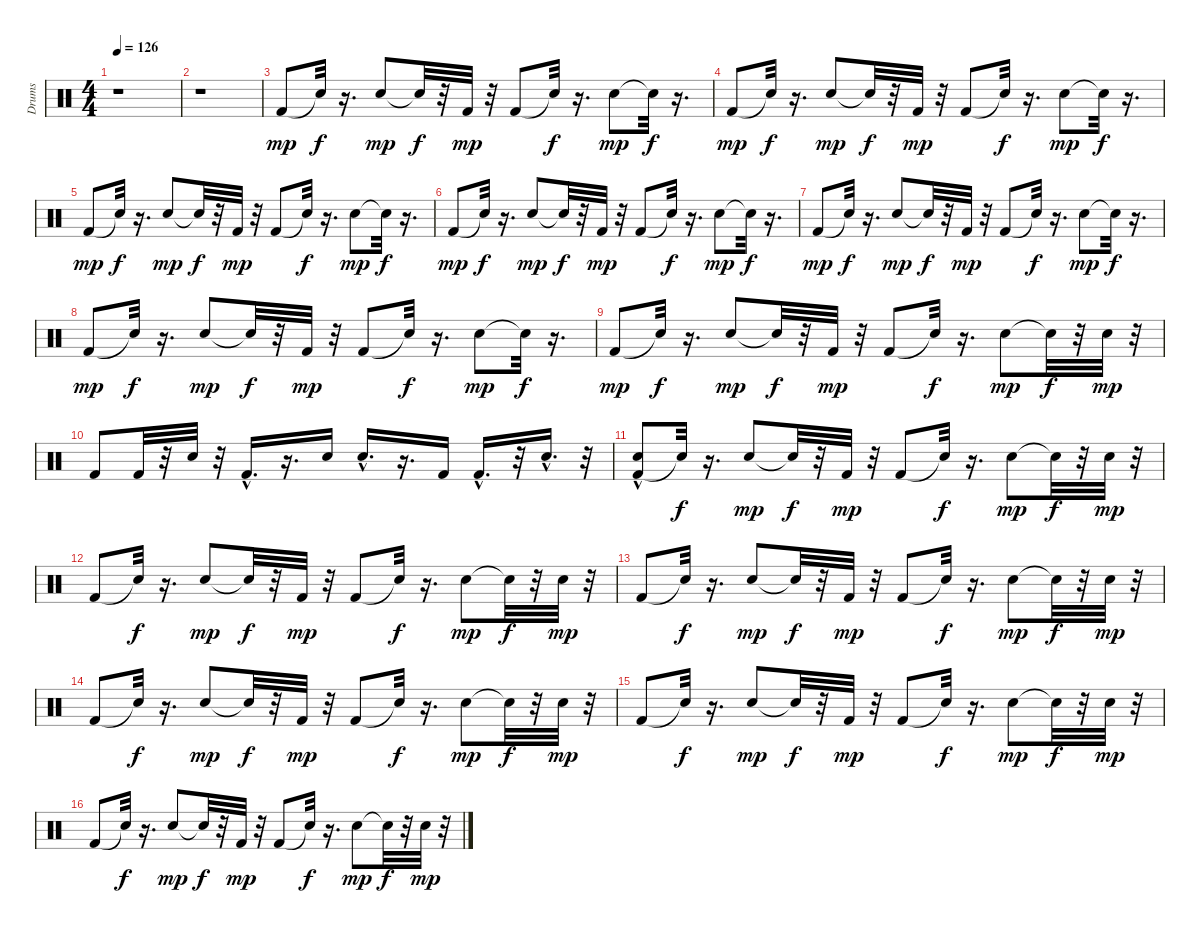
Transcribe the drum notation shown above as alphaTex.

\track ("Drums" "Drums") {instrument percussion}
\staff {score}
\articulation defaults
\ts (4 4)
\tempo 126
\clef neutral
\ks c
r.1{dy mp} |
r.1 |
"Kick (hit) 2".8 "Snare (hit)"{t}.32{dy f} r.16{d} "Electric Snare (hit)".8{dy mp} "Snare (hit)"{t}.32{dy f} r.32 "Kick (hit) 2".32{dy mp} r.32 "Kick (hit) 2".8 "Snare (hit)"{t}.32{dy f} r.16{d} "Electric Snare (hit)".8{dy mp} "Snare (hit)"{t}.32{dy f} r.16{d} |
"Kick (hit) 2".8{dy mp} "Snare (hit)"{t}.32{dy f} r.16{d} "Electric Snare (hit)".8{dy mp} "Snare (hit)"{t}.32{dy f} r.32 "Kick (hit) 2".32{dy mp} r.32 "Kick (hit) 2".8 "Snare (hit)"{t}.32{dy f} r.16{d} "Electric Snare (hit)".8{dy mp} "Snare (hit)"{t}.32{dy f} r.16{d} |
"Kick (hit) 2".8{dy mp} "Snare (hit)"{t}.32{dy f} r.16{d} "Electric Snare (hit)".8{dy mp} "Snare (hit)"{t}.32{dy f} r.32 "Kick (hit) 2".32{dy mp} r.32 "Kick (hit) 2".8 "Snare (hit)"{t}.32{dy f} r.16{d} "Electric Snare (hit)".8{dy mp} "Snare (hit)"{t}.32{dy f} r.16{d} |
"Kick (hit) 2".8{dy mp} "Snare (hit)"{t}.32{dy f} r.16{d} "Electric Snare (hit)".8{dy mp} "Snare (hit)"{t}.32{dy f} r.32 "Kick (hit) 2".32{dy mp} r.32 "Kick (hit) 2".8 "Snare (hit)"{t}.32{dy f} r.16{d} "Electric Snare (hit)".8{dy mp} "Snare (hit)"{t}.32{dy f} r.16{d} |
"Kick (hit) 2".8{dy mp} "Snare (hit)"{t}.32{dy f} r.16{d} "Electric Snare (hit)".8{dy mp} "Snare (hit)"{t}.32{dy f} r.32 "Kick (hit) 2".32{dy mp} r.32 "Kick (hit) 2".8 "Snare (hit)"{t}.32{dy f} r.16{d} "Electric Snare (hit)".8{dy mp} "Snare (hit)"{t}.32{dy f} r.16{d} |
"Kick (hit) 2".8{dy mp} "Snare (hit)"{t}.32{dy f} r.16{d} "Electric Snare (hit)".8{dy mp} "Snare (hit)"{t}.32{dy f} r.32 "Kick (hit) 2".32{dy mp} r.32 "Kick (hit) 2".8 "Snare (hit)"{t}.32{dy f} r.16{d} "Electric Snare (hit)".8{dy mp} "Snare (hit)"{t}.32{dy f} r.16{d} |
"Kick (hit) 2".8{dy mp} "Snare (hit)"{t}.32{dy f} r.16{d} "Electric Snare (hit)".8{dy mp} "Snare (hit)"{t}.32{dy f} r.32 "Kick (hit) 2".32{dy mp} r.32 "Kick (hit) 2".8 "Snare (hit)"{t}.32{dy f} r.16{d} "Electric Snare (hit)".8{dy mp} "Snare (hit)"{t}.32{dy f} r.32 "Electric Snare (hit)".32{dy mp} r.32 |
"Kick (hit) 2".8 "Kick (hit) 2".32 r.32 "Electric Snare (hit)".32 r.32 "Kick (hit) 2"{hac}.16{d} r.16{d} "Electric Snare (hit)".16 "Electric Snare (hit)"{hac}.16{d} r.16{d} "Kick (hit) 2".16 "Kick (hit) 2"{hac}.16{d} r.32 "Electric Snare (hit)"{hac}.16{d} r.32 |
("Kick (hit) 2" "Electric Snare (hit)"{hac}).8 "Snare (hit)"{t}.32{dy f} r.16{d} "Electric Snare (hit)".8{dy mp} "Snare (hit)"{t}.32{dy f} r.32 "Kick (hit) 2".32{dy mp} r.32 "Kick (hit) 2".8 "Snare (hit)"{t}.32{dy f} r.16{d} "Electric Snare (hit)".8{dy mp} "Snare (hit)"{t}.32{dy f} r.32 "Electric Snare (hit)".32{dy mp} r.32 |
"Kick (hit) 2".8 "Snare (hit)"{t}.32{dy f} r.16{d} "Electric Snare (hit)".8{dy mp} "Snare (hit)"{t}.32{dy f} r.32 "Kick (hit) 2".32{dy mp} r.32 "Kick (hit) 2".8 "Snare (hit)"{t}.32{dy f} r.16{d} "Electric Snare (hit)".8{dy mp} "Snare (hit)"{t}.32{dy f} r.32 "Electric Snare (hit)".32{dy mp} r.32 |
"Kick (hit) 2".8 "Snare (hit)"{t}.32{dy f} r.16{d} "Electric Snare (hit)".8{dy mp} "Snare (hit)"{t}.32{dy f} r.32 "Kick (hit) 2".32{dy mp} r.32 "Kick (hit) 2".8 "Snare (hit)"{t}.32{dy f} r.16{d} "Electric Snare (hit)".8{dy mp} "Snare (hit)"{t}.32{dy f} r.32 "Electric Snare (hit)".32{dy mp} r.32 |
"Kick (hit) 2".8 "Snare (hit)"{t}.32{dy f} r.16{d} "Electric Snare (hit)".8{dy mp} "Snare (hit)"{t}.32{dy f} r.32 "Kick (hit) 2".32{dy mp} r.32 "Kick (hit) 2".8 "Snare (hit)"{t}.32{dy f} r.16{d} "Electric Snare (hit)".8{dy mp} "Snare (hit)"{t}.32{dy f} r.32 "Electric Snare (hit)".32{dy mp} r.32 |
"Kick (hit) 2".8 "Snare (hit)"{t}.32{dy f} r.16{d} "Electric Snare (hit)".8{dy mp} "Snare (hit)"{t}.32{dy f} r.32 "Kick (hit) 2".32{dy mp} r.32 "Kick (hit) 2".8 "Snare (hit)"{t}.32{dy f} r.16{d} "Electric Snare (hit)".8{dy mp} "Snare (hit)"{t}.32{dy f} r.32 "Electric Snare (hit)".32{dy mp} r.32 |
"Kick (hit) 2".8 "Snare (hit)"{t}.32{dy f} r.16{d} "Electric Snare (hit)".8{dy mp} "Snare (hit)"{t}.32{dy f} r.32 "Kick (hit) 2".32{dy mp} r.32 "Kick (hit) 2".8 "Snare (hit)"{t}.32{dy f} r.16{d} "Electric Snare (hit)".8{dy mp} "Snare (hit)"{t}.32{dy f} r.32 "Electric Snare (hit)".32{dy mp} r.32
